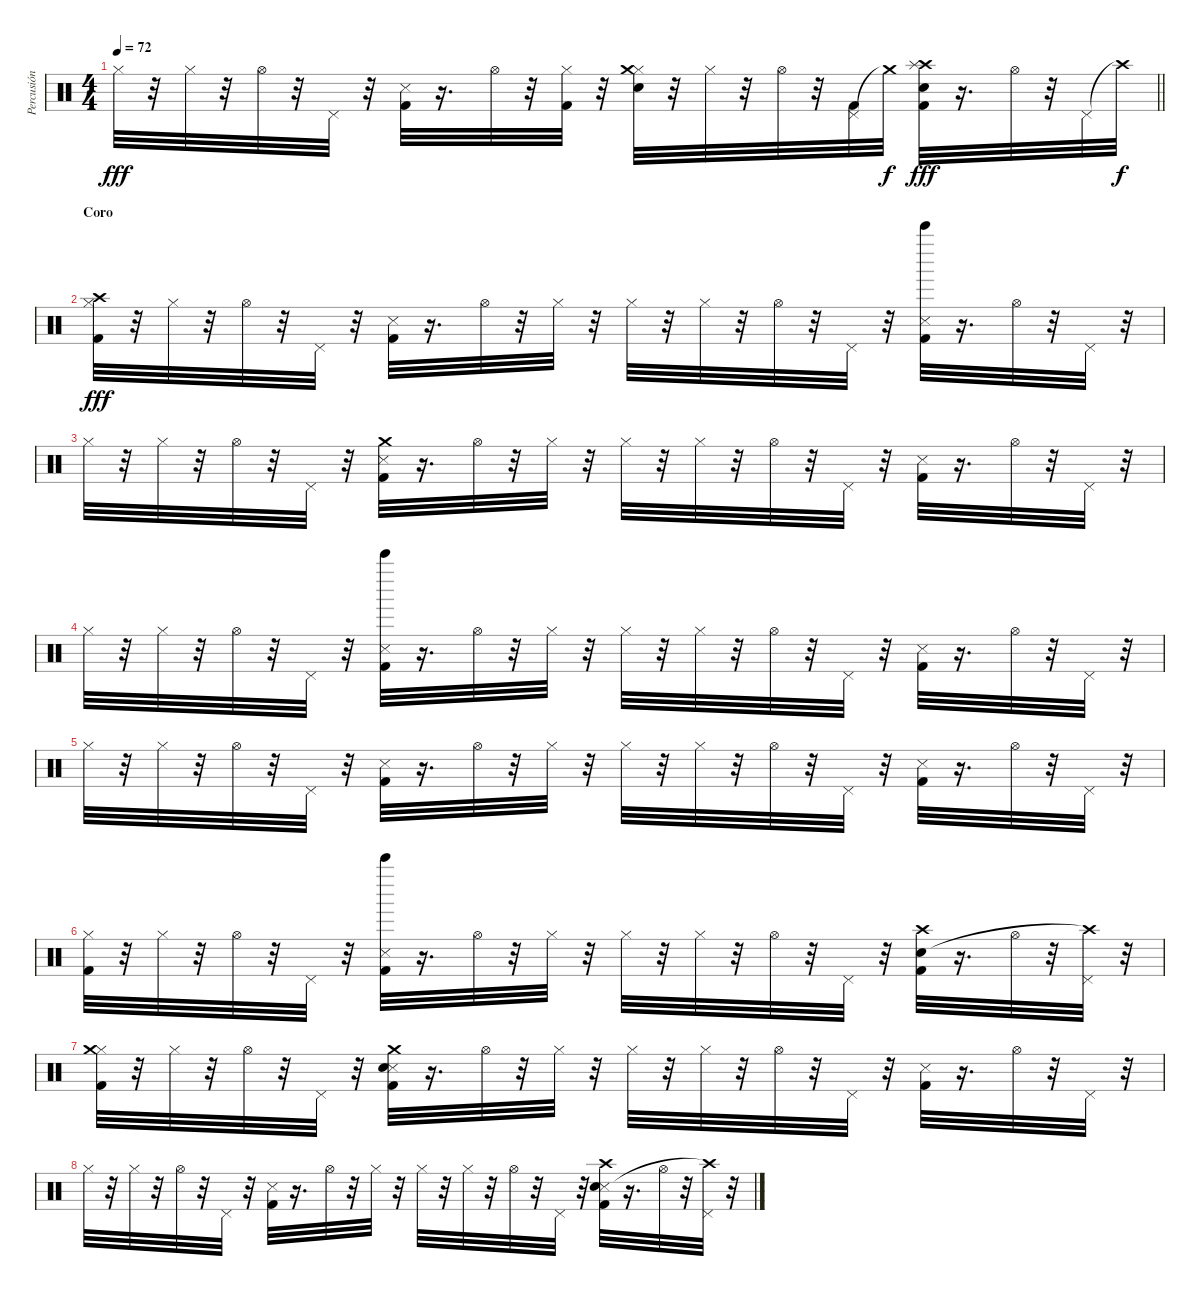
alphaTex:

\track ("Percusión" "Percusión") {instrument percussion}
\staff {score}
\articulation defaults
\ts (4 4)
\tempo 72
\clef neutral
\barLineRight lightlight
\ks c "Hi-Hat (closed)".32{dy fff}
r.32 "Hi-Hat (closed)".32 r.32 "Hi-Hat (open)".32 r.32 "Pedal Hi-Hat (hit)".32 r.32 ("Kick (hit) 2" "Snare (side stick) 3").32 r.16{d} "Hi-Hat (open)".32 r.32 ("Hi-Hat (closed)" "Kick (hit) 2").32 r.32 ("Hi-Hat (closed)" "Snare (hit) 2" "Crash medium (hit)").32 r.32 "Hi-Hat (closed)".32 r.32 "Hi-Hat (open)".32 r.32 ("Pedal Hi-Hat (hit)" "Kick (hit) 2").32 "Crash medium (hit)"{t}.32{dy f} ("Kick (hit) 2" "Snare (hit) 2" "Crash high (hit)" "Splash (hit)").32{dy fff} r.16{d} "Hi-Hat (open)".32 r.32 "Pedal Hi-Hat (hit)".32 "Crash high (hit)"{t}.32{dy f} |
\section ("" "Coro")
("Hi-Hat (closed)" "Kick (hit) 2" "Crash high (hit)").32{dy fff} r.32 "Hi-Hat (closed)".32 r.32 "Hi-Hat (open)".32 r.32 "Pedal Hi-Hat (hit)".32 r.32 ("Kick (hit) 2" "Snare (side stick) 3").32 r.16{d} "Hi-Hat (open)".32 r.32 "Hi-Hat (closed)".32 r.32 "Hi-Hat (closed)".32 r.32 "Hi-Hat (closed)".32 r.32 "Hi-Hat (open)".32 r.32 "Pedal Hi-Hat (hit)".32 r.32 ("Kick (hit) 2" "Snare (side stick) 3" "Bell Tree (hit)").32 r.16{d} "Hi-Hat (open)".32 r.32 "Pedal Hi-Hat (hit)".32 r.32 |
"Hi-Hat (closed)".32 r.32 "Hi-Hat (closed)".32 r.32 "Hi-Hat (open)".32 r.32 "Pedal Hi-Hat (hit)".32 r.32 ("Kick (hit) 2" "Snare (side stick) 3" "Crash medium (hit)").32 r.16{d} "Hi-Hat (open)".32 r.32 "Hi-Hat (closed)".32 r.32 "Hi-Hat (closed)".32 r.32 "Hi-Hat (closed)".32 r.32 "Hi-Hat (open)".32 r.32 "Pedal Hi-Hat (hit)".32 r.32 ("Kick (hit) 2" "Snare (side stick) 3").32 r.16{d} "Hi-Hat (open)".32 r.32 "Pedal Hi-Hat (hit)".32 r.32 |
"Hi-Hat (closed)".32 r.32 "Hi-Hat (closed)".32 r.32 "Hi-Hat (open)".32 r.32 "Pedal Hi-Hat (hit)".32 r.32 ("Kick (hit) 2" "Snare (side stick) 3" "Bell Tree (hit)").32 r.16{d} "Hi-Hat (open)".32 r.32 "Hi-Hat (closed)".32 r.32 "Hi-Hat (closed)".32 r.32 "Hi-Hat (closed)".32 r.32 "Hi-Hat (open)".32 r.32 "Pedal Hi-Hat (hit)".32 r.32 ("Kick (hit) 2" "Snare (side stick) 3").32 r.16{d} "Hi-Hat (open)".32 r.32 "Pedal Hi-Hat (hit)".32 r.32 |
"Hi-Hat (closed)".32 r.32 "Hi-Hat (closed)".32 r.32 "Hi-Hat (open)".32 r.32 "Pedal Hi-Hat (hit)".32 r.32 ("Kick (hit) 2" "Snare (side stick) 3").32 r.16{d} "Hi-Hat (open)".32 r.32 "Hi-Hat (closed)".32 r.32 "Hi-Hat (closed)".32 r.32 "Hi-Hat (closed)".32 r.32 "Hi-Hat (open)".32 r.32 "Pedal Hi-Hat (hit)".32 r.32 ("Kick (hit) 2" "Snare (side stick) 3").32 r.16{d} "Hi-Hat (open)".32 r.32 "Pedal Hi-Hat (hit)".32 r.32 |
("Hi-Hat (closed)" "Kick (hit) 2").32 r.32 "Hi-Hat (closed)".32 r.32 "Hi-Hat (open)".32 r.32 "Pedal Hi-Hat (hit)".32 r.32 ("Kick (hit) 2" "Snare (side stick) 3" "Bell Tree (hit)").32 r.16{d} "Hi-Hat (open)".32 r.32 "Hi-Hat (closed)".32 r.32 "Hi-Hat (closed)".32 r.32 "Hi-Hat (closed)".32 r.32 "Hi-Hat (open)".32 r.32 "Pedal Hi-Hat (hit)".32 r.32 ("Kick (hit) 2" "Snare (hit) 2" "Crash high (hit)").32 r.16{d} "Hi-Hat (open)".32 r.32 ("Pedal Hi-Hat (hit)" "Crash high (hit)"{t}).32 r.32 |
("Hi-Hat (closed)" "Kick (hit) 2" "Crash medium (hit)").32 r.32 "Hi-Hat (closed)".32 r.32 "Hi-Hat (open)".32 r.32 "Pedal Hi-Hat (hit)".32 r.32 ("Kick (hit) 2" "Snare (side stick) 3" "Crash medium (hit)" "Snare (hit) 2").32 r.16{d} "Hi-Hat (open)".32 r.32 "Hi-Hat (closed)".32 r.32 "Hi-Hat (closed)".32 r.32 "Hi-Hat (closed)".32 r.32 "Hi-Hat (open)".32 r.32 "Pedal Hi-Hat (hit)".32 r.32 ("Kick (hit) 2" "Snare (side stick) 3").32 r.16{d} "Hi-Hat (open)".32 r.32 "Pedal Hi-Hat (hit)".32 r.32 |
"Hi-Hat (closed)".32 r.32 "Hi-Hat (closed)".32 r.32 "Hi-Hat (open)".32 r.32 "Pedal Hi-Hat (hit)".32 r.32 ("Kick (hit) 2" "Snare (side stick) 3").32 r.16{d} "Hi-Hat (open)".32 r.32 "Hi-Hat (closed)".32 r.32 "Hi-Hat (closed)".32 r.32 "Hi-Hat (closed)".32 r.32 "Hi-Hat (open)".32 r.32 "Pedal Hi-Hat (hit)".32 r.32 ("Kick (hit) 2" "Snare (side stick) 3" "Snare (hit) 2" "Crash high (hit)").32 r.16{d} "Hi-Hat (open)".32 r.32 ("Pedal Hi-Hat (hit)" "Crash high (hit)"{t}).32 r.32
